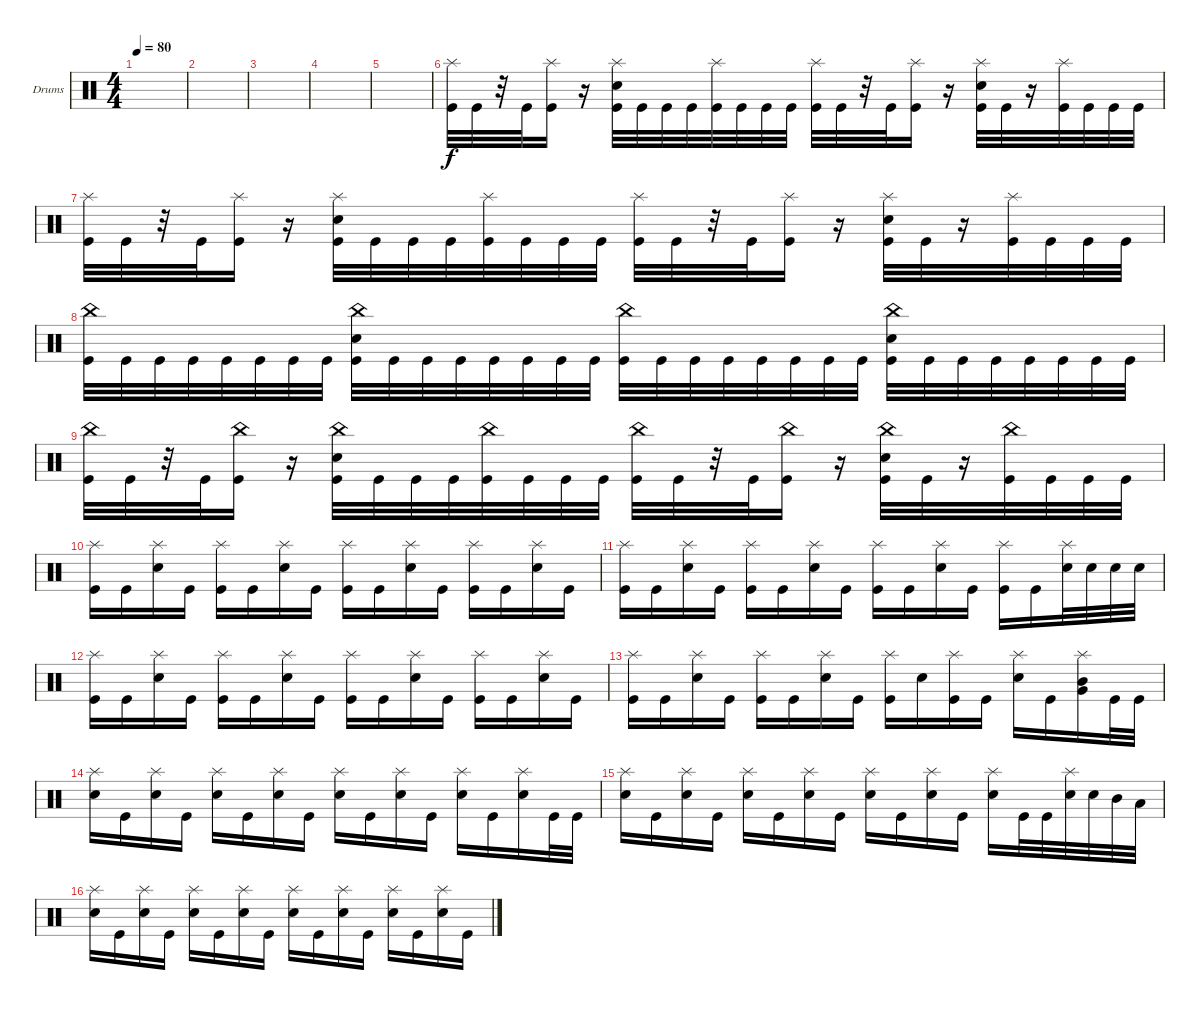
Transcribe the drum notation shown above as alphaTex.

\defaultSystemsLayout 4
\bracketExtendMode groupsimilarinstruments
\firstSystemTrackNameOrientation horizontal
\otherSystemsTrackNameOrientation horizontal
\track ("Drumkit" "Drums") {instrument percussion}
\staff {score}
\articulation defaults
\ts (4 4)
\tempo 80
\clef neutral
\ks c
|
|
|
|
|
("Kick (hit)" "Splash (hit)").32 "Kick (hit)".32 r.32 "Kick (hit)".32 ("Kick (hit)" "Splash (hit)").16 r.16 ("Kick (hit)" "Snare (hit) 2" "Splash (hit)").32 "Kick (hit)".32 "Kick (hit)".32 "Kick (hit)".32 ("Kick (hit)" "Splash (hit)").32 "Kick (hit)".32 "Kick (hit)".32 "Kick (hit)".32 ("Kick (hit)" "Splash (hit)").32 "Kick (hit)".32 r.32 "Kick (hit)".32 ("Kick (hit)" "Splash (hit)").16 r.16 ("Kick (hit)" "Snare (hit) 2" "Splash (hit)").32 "Kick (hit)".32 r.16 ("Kick (hit)" "Splash (hit)").32 "Kick (hit)".32 "Kick (hit)".32 "Kick (hit)".32 |
("Kick (hit)" "Splash (hit)").32 "Kick (hit)".32 r.32 "Kick (hit)".32 ("Kick (hit)" "Splash (hit)").16 r.16 ("Kick (hit)" "Snare (hit) 2" "Splash (hit)").32 "Kick (hit)".32 "Kick (hit)".32 "Kick (hit)".32 ("Kick (hit)" "Splash (hit)").32 "Kick (hit)".32 "Kick (hit)".32 "Kick (hit)".32 ("Kick (hit)" "Splash (hit)").32 "Kick (hit)".32 r.32 "Kick (hit)".32 ("Kick (hit)" "Splash (hit)").16 r.16 ("Kick (hit)" "Snare (hit) 2" "Splash (hit)").32 "Kick (hit)".32 r.16 ("Kick (hit)" "Splash (hit)").32 "Kick (hit)".32 "Kick (hit)".32 "Kick (hit)".32 |
("Kick (hit)" "China (hit)").32 "Kick (hit)".32 "Kick (hit)".32 "Kick (hit)".32 "Kick (hit)".32 "Kick (hit)".32 "Kick (hit)".32 "Kick (hit)".32 ("Kick (hit)" "China (hit)" "Snare (hit) 2").32 "Kick (hit)".32 "Kick (hit)".32 "Kick (hit)".32 "Kick (hit)".32 "Kick (hit)".32 "Kick (hit)".32 "Kick (hit)".32 ("Kick (hit)" "China (hit)").32 "Kick (hit)".32 "Kick (hit)".32 "Kick (hit)".32 "Kick (hit)".32 "Kick (hit)".32 "Kick (hit)".32 "Kick (hit)".32 ("Kick (hit)" "China (hit)" "Snare (hit) 2").32 "Kick (hit)".32 "Kick (hit)".32 "Kick (hit)".32 "Kick (hit)".32 "Kick (hit)".32 "Kick (hit)".32 "Kick (hit)".32 |
("Kick (hit)" "China (hit)").32 "Kick (hit)".32 r.32 "Kick (hit)".32 ("Kick (hit)" "China (hit)").16 r.16 ("Kick (hit)" "Snare (hit) 2" "China (hit)").32 "Kick (hit)".32 "Kick (hit)".32 "Kick (hit)".32 ("Kick (hit)" "China (hit)").32 "Kick (hit)".32 "Kick (hit)".32 "Kick (hit)".32 ("Kick (hit)" "China (hit)").32 "Kick (hit)".32 r.32 "Kick (hit)".32 ("Kick (hit)" "China (hit)").16 r.16 ("Kick (hit)" "Snare (hit) 2" "China (hit)").32 "Kick (hit)".32 r.16 ("Kick (hit)" "China (hit)").32 "Kick (hit)".32 "Kick (hit)".32 "Kick (hit)".32 |
("Kick (hit)" "Splash (hit)").16 "Kick (hit)".16 ("Snare (hit) 2" "Splash (hit)").16 "Kick (hit)".16 ("Kick (hit)" "Splash (hit)").16 "Kick (hit)".16 ("Snare (hit) 2" "Splash (hit)").16 "Kick (hit)".16 ("Kick (hit)" "Splash (hit)").16 "Kick (hit)".16 ("Snare (hit) 2" "Splash (hit)").16 "Kick (hit)".16 ("Kick (hit)" "Splash (hit)").16 "Kick (hit)".16 ("Snare (hit) 2" "Splash (hit)").16 "Kick (hit)".16 |
("Kick (hit)" "Splash (hit)").16 "Kick (hit)".16 ("Snare (hit) 2" "Splash (hit)").16 "Kick (hit)".16 ("Kick (hit)" "Splash (hit)").16 "Kick (hit)".16 ("Snare (hit) 2" "Splash (hit)").16 "Kick (hit)".16 ("Kick (hit)" "Splash (hit)").16 "Kick (hit)".16 ("Snare (hit) 2" "Splash (hit)").16 "Kick (hit)".16 ("Kick (hit)" "Splash (hit)").16 "Kick (hit)".16 ("Snare (hit) 2" "Splash (hit)").32 "Snare (hit) 2".32 "Snare (hit) 2".32 "Snare (hit) 2".32 |
("Kick (hit)" "Splash (hit)").16 "Kick (hit)".16 ("Snare (hit) 2" "Splash (hit)").16 "Kick (hit)".16 ("Kick (hit)" "Splash (hit)").16 "Kick (hit)".16 ("Snare (hit) 2" "Splash (hit)").16 "Kick (hit)".16 ("Kick (hit)" "Splash (hit)").16 "Kick (hit)".16 ("Snare (hit) 2" "Splash (hit)").16 "Kick (hit)".16 ("Kick (hit)" "Splash (hit)").16 "Kick (hit)".16 ("Snare (hit) 2" "Splash (hit)").16 "Kick (hit)".16 |
("Kick (hit)" "Splash (hit)").16 "Kick (hit)".16 ("Snare (hit) 2" "Splash (hit)").16 "Kick (hit)".16 ("Kick (hit)" "Splash (hit)").16 "Kick (hit)".16 ("Snare (hit) 2" "Splash (hit)").16 "Kick (hit)".16 ("Kick (hit)" "Splash (hit)").16 "Snare (hit) 2".16 ("Splash (hit)" "Kick (hit)").16 "Kick (hit)".16 ("Splash (hit)" "Snare (hit) 2").16 "Kick (hit)".16 ("Splash (hit)" "Mid Tom (hit)" "Very Low Tom (hit)").16 "Kick (hit)".32 "Kick (hit)".32 |
("Snare (hit) 2" "Splash (hit)").16 "Kick (hit)".16 ("Snare (hit) 2" "Splash (hit)").16 "Kick (hit)".16 ("Snare (hit) 2" "Splash (hit)").16 "Kick (hit)".16 ("Snare (hit) 2" "Splash (hit)").16 "Kick (hit)".16 ("Snare (hit) 2" "Splash (hit)").16 "Kick (hit)".16 ("Snare (hit) 2" "Splash (hit)").16 "Kick (hit)".16 ("Snare (hit) 2" "Splash (hit)").16 "Kick (hit)".16 ("Snare (hit) 2" "Splash (hit)").16 "Kick (hit)".32 "Kick (hit)".32 |
("Snare (hit) 2" "Splash (hit)").16 "Kick (hit)".16 ("Snare (hit) 2" "Splash (hit)").16 "Kick (hit)".16 ("Snare (hit) 2" "Splash (hit)").16 "Kick (hit)".16 ("Snare (hit) 2" "Splash (hit)").16 "Kick (hit)".16 ("Snare (hit) 2" "Splash (hit)").16 "Kick (hit)".16 ("Snare (hit) 2" "Splash (hit)").16 "Kick (hit)".16 ("Snare (hit) 2" "Splash (hit)").16 "Kick (hit)".32 "Kick (hit)".32 ("Snare (hit) 2" "Splash (hit)").32 "Snare (hit) 2".32 "Mid Tom (hit)".32 "Low Tom (hit)".32 |
("Snare (hit) 2" "Splash (hit)").16 "Kick (hit)".16 ("Snare (hit) 2" "Splash (hit)").16 "Kick (hit)".16 ("Snare (hit) 2" "Splash (hit)").16 "Kick (hit)".16 ("Snare (hit) 2" "Splash (hit)").16 "Kick (hit)".16 ("Snare (hit) 2" "Splash (hit)").16 "Kick (hit)".16 ("Snare (hit) 2" "Splash (hit)").16 "Kick (hit)".16 ("Snare (hit) 2" "Splash (hit)").16 "Kick (hit)".16 ("Snare (hit) 2" "Splash (hit)").16 "Kick (hit)".16
